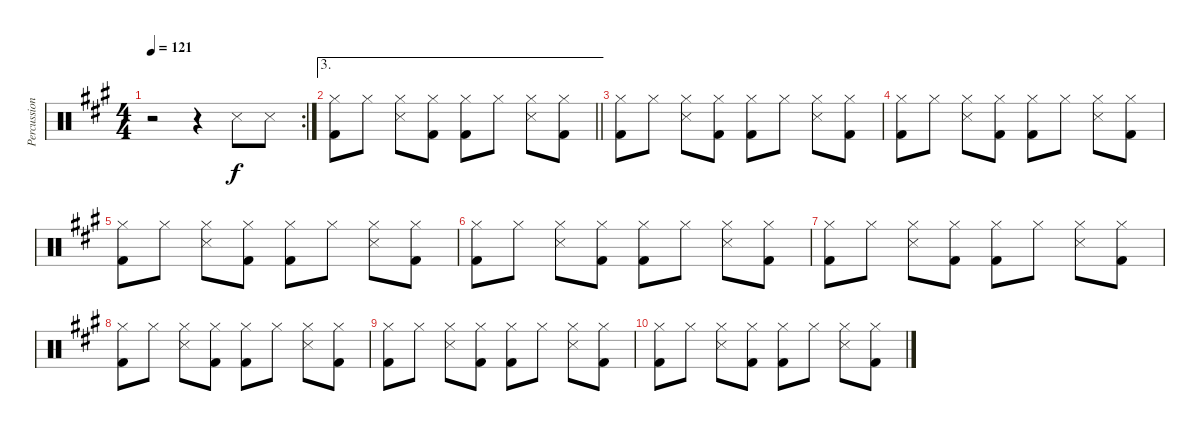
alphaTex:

\track ("Percussion" "Percussion") {instrument percussion}
\staff {score}
\articulation defaults
\rc 2
\ts (4 4)
\tempo 121
\clef neutral
\ks a
r.2{dy f} r.4 "Snare (side stick) 3".8 "Snare (side stick) 3".8 |
\ae 3
\barLineRight lightlight
("Hi-Hat (closed)" "Kick (hit) 2").8 "Hi-Hat (closed)".8 ("Hi-Hat (closed)" "Snare (side stick) 3").8 ("Hi-Hat (closed)" "Kick (hit) 2").8 ("Hi-Hat (closed)" "Kick (hit) 2").8 "Hi-Hat (closed)".8 ("Hi-Hat (closed)" "Snare (side stick) 3").8 ("Hi-Hat (closed)" "Kick (hit) 2").8 |
("Hi-Hat (closed)" "Kick (hit) 2").8 "Hi-Hat (closed)".8 ("Hi-Hat (closed)" "Snare (side stick) 3").8 ("Hi-Hat (closed)" "Kick (hit) 2").8 ("Hi-Hat (closed)" "Kick (hit) 2").8 "Hi-Hat (closed)".8 ("Hi-Hat (closed)" "Snare (side stick) 3").8 ("Hi-Hat (closed)" "Kick (hit) 2").8 |
("Hi-Hat (closed)" "Kick (hit) 2").8 "Hi-Hat (closed)".8 ("Hi-Hat (closed)" "Snare (side stick) 3").8 ("Hi-Hat (closed)" "Kick (hit) 2").8 ("Hi-Hat (closed)" "Kick (hit) 2").8 "Hi-Hat (closed)".8 ("Hi-Hat (closed)" "Snare (side stick) 3").8 ("Hi-Hat (closed)" "Kick (hit) 2").8 |
("Hi-Hat (closed)" "Kick (hit) 2").8 "Hi-Hat (closed)".8 ("Hi-Hat (closed)" "Snare (side stick) 3").8 ("Hi-Hat (closed)" "Kick (hit) 2").8 ("Hi-Hat (closed)" "Kick (hit) 2").8 "Hi-Hat (closed)".8 ("Hi-Hat (closed)" "Snare (side stick) 3").8 ("Hi-Hat (closed)" "Kick (hit) 2").8 |
("Hi-Hat (closed)" "Kick (hit) 2").8 "Hi-Hat (closed)".8 ("Hi-Hat (closed)" "Snare (side stick) 3").8 ("Hi-Hat (closed)" "Kick (hit) 2").8 ("Hi-Hat (closed)" "Kick (hit) 2").8 "Hi-Hat (closed)".8 ("Hi-Hat (closed)" "Snare (side stick) 3").8 ("Hi-Hat (closed)" "Kick (hit) 2").8 |
("Hi-Hat (closed)" "Kick (hit) 2").8 "Hi-Hat (closed)".8 ("Hi-Hat (closed)" "Snare (side stick) 3").8 ("Hi-Hat (closed)" "Kick (hit) 2").8 ("Hi-Hat (closed)" "Kick (hit) 2").8 "Hi-Hat (closed)".8 ("Hi-Hat (closed)" "Snare (side stick) 3").8 ("Hi-Hat (closed)" "Kick (hit) 2").8 |
("Hi-Hat (closed)" "Kick (hit) 2").8 "Hi-Hat (closed)".8 ("Hi-Hat (closed)" "Snare (side stick) 3").8 ("Hi-Hat (closed)" "Kick (hit) 2").8 ("Hi-Hat (closed)" "Kick (hit) 2").8 "Hi-Hat (closed)".8 ("Hi-Hat (closed)" "Snare (side stick) 3").8 ("Hi-Hat (closed)" "Kick (hit) 2").8 |
("Hi-Hat (closed)" "Kick (hit) 2").8 "Hi-Hat (closed)".8 ("Hi-Hat (closed)" "Snare (side stick) 3").8 ("Hi-Hat (closed)" "Kick (hit) 2").8 ("Hi-Hat (closed)" "Kick (hit) 2").8 "Hi-Hat (closed)".8 ("Hi-Hat (closed)" "Snare (side stick) 3").8 ("Hi-Hat (closed)" "Kick (hit) 2").8 |
("Hi-Hat (closed)" "Kick (hit) 2").8 "Hi-Hat (closed)".8 ("Hi-Hat (closed)" "Snare (side stick) 3").8 ("Hi-Hat (closed)" "Kick (hit) 2").8 ("Hi-Hat (closed)" "Kick (hit) 2").8 "Hi-Hat (closed)".8 ("Hi-Hat (closed)" "Snare (side stick) 3").8 ("Hi-Hat (closed)" "Kick (hit) 2").8
